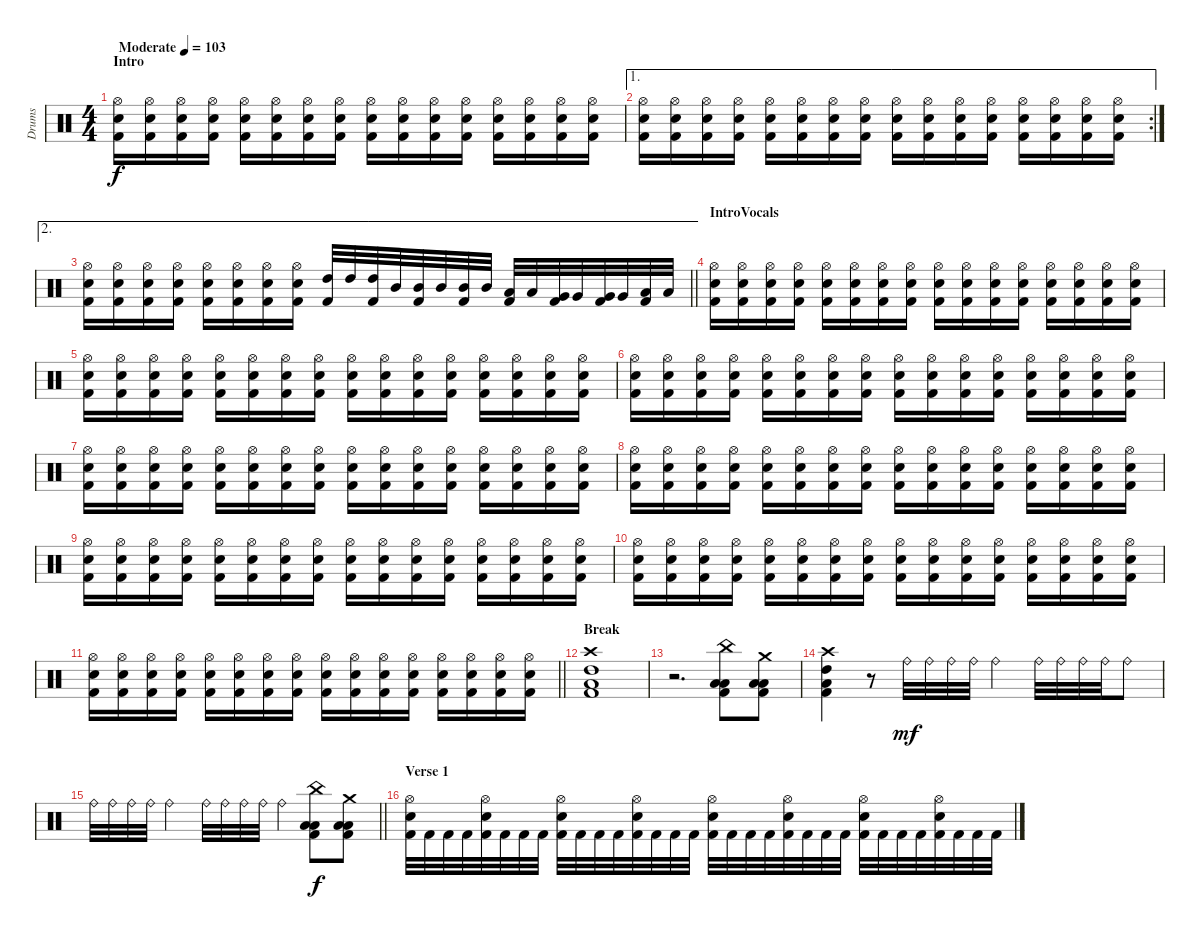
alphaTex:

\track ("Drums" "Drums") {instrument percussion}
\staff {score}
\articulation defaults
\ts (4 4)
\section ("" "Intro")
\tempo (103 "Moderate")
\clef neutral
\ks c
("Hi-Hat (open)" "Electric Snare (hit)" "Kick (hit) 2").16{dy f} ("Hi-Hat (open)" "Electric Snare (hit)" "Kick (hit) 2").16 ("Hi-Hat (open)" "Electric Snare (hit)" "Kick (hit) 2").16 ("Hi-Hat (open)" "Electric Snare (hit)" "Kick (hit) 2").16 ("Hi-Hat (open)" "Electric Snare (hit)" "Kick (hit) 2").16 ("Hi-Hat (open)" "Electric Snare (hit)" "Kick (hit) 2").16 ("Hi-Hat (open)" "Electric Snare (hit)" "Kick (hit) 2").16 ("Hi-Hat (open)" "Electric Snare (hit)" "Kick (hit) 2").16 ("Hi-Hat (open)" "Electric Snare (hit)" "Kick (hit) 2").16 ("Hi-Hat (open)" "Electric Snare (hit)" "Kick (hit) 2").16 ("Hi-Hat (open)" "Electric Snare (hit)" "Kick (hit) 2").16 ("Hi-Hat (open)" "Electric Snare (hit)" "Kick (hit) 2").16 ("Hi-Hat (open)" "Electric Snare (hit)" "Kick (hit) 2").16 ("Hi-Hat (open)" "Electric Snare (hit)" "Kick (hit) 2").16 ("Hi-Hat (open)" "Electric Snare (hit)" "Kick (hit) 2").16 ("Hi-Hat (open)" "Electric Snare (hit)" "Kick (hit) 2").16 |
\ae 1
\rc 2
("Hi-Hat (open)" "Electric Snare (hit)" "Kick (hit) 2").16 ("Hi-Hat (open)" "Electric Snare (hit)" "Kick (hit) 2").16 ("Hi-Hat (open)" "Electric Snare (hit)" "Kick (hit) 2").16 ("Hi-Hat (open)" "Electric Snare (hit)" "Kick (hit) 2").16 ("Hi-Hat (open)" "Electric Snare (hit)" "Kick (hit) 2").16 ("Hi-Hat (open)" "Electric Snare (hit)" "Kick (hit) 2").16 ("Hi-Hat (open)" "Electric Snare (hit)" "Kick (hit) 2").16 ("Hi-Hat (open)" "Electric Snare (hit)" "Kick (hit) 2").16 ("Hi-Hat (open)" "Electric Snare (hit)" "Kick (hit) 2").16 ("Hi-Hat (open)" "Electric Snare (hit)" "Kick (hit) 2").16 ("Hi-Hat (open)" "Electric Snare (hit)" "Kick (hit) 2").16 ("Hi-Hat (open)" "Electric Snare (hit)" "Kick (hit) 2").16 ("Hi-Hat (open)" "Electric Snare (hit)" "Kick (hit) 2").16 ("Hi-Hat (open)" "Electric Snare (hit)" "Kick (hit) 2").16 ("Hi-Hat (open)" "Electric Snare (hit)" "Kick (hit) 2").16 ("Hi-Hat (open)" "Electric Snare (hit)" "Kick (hit) 2").16 |
\ae 2
\barLineRight lightlight
("Hi-Hat (open)" "Electric Snare (hit)" "Kick (hit) 2").16 ("Hi-Hat (open)" "Electric Snare (hit)" "Kick (hit) 2").16 ("Hi-Hat (open)" "Electric Snare (hit)" "Kick (hit) 2").16 ("Hi-Hat (open)" "Electric Snare (hit)" "Kick (hit) 2").16 ("Hi-Hat (open)" "Electric Snare (hit)" "Kick (hit) 2").16 ("Hi-Hat (open)" "Electric Snare (hit)" "Kick (hit) 2").16 ("Hi-Hat (open)" "Electric Snare (hit)" "Kick (hit) 2").16 ("Hi-Hat (open)" "Electric Snare (hit)" "Kick (hit) 2").16 ("High Tom (hit)" "Kick (hit) 2").32 "High Tom (hit)".32 ("High Tom (hit)" "Kick (hit) 2").32 "Mid Tom (hit)".32 ("Mid Tom (hit)" "Kick (hit) 2").32 "Mid Tom (hit)".32 ("Mid Tom (hit)" "Kick (hit) 2").32 "Mid Tom (hit)".32 ("Low Tom (hit)" "Kick (hit) 2").32 "Low Tom (hit)".32 ("Very Low Tom (hit)" "Kick (hit) 2").32 "Very Low Tom (hit)".32 ("Very Low Tom (hit)" "Kick (hit) 2").32 "Very Low Tom (hit)".32 ("Low Floor Tom (hit)" "Kick (hit) 2").32 "Low Floor Tom (hit)".32 |
\section ("" "IntroVocals")
("Hi-Hat (open)" "Electric Snare (hit)" "Kick (hit) 2").16 ("Hi-Hat (open)" "Electric Snare (hit)" "Kick (hit) 2").16 ("Hi-Hat (open)" "Electric Snare (hit)" "Kick (hit) 2").16 ("Hi-Hat (open)" "Electric Snare (hit)" "Kick (hit) 2").16 ("Hi-Hat (open)" "Electric Snare (hit)" "Kick (hit) 2").16 ("Hi-Hat (open)" "Electric Snare (hit)" "Kick (hit) 2").16 ("Hi-Hat (open)" "Electric Snare (hit)" "Kick (hit) 2").16 ("Hi-Hat (open)" "Electric Snare (hit)" "Kick (hit) 2").16 ("Hi-Hat (open)" "Electric Snare (hit)" "Kick (hit) 2").16 ("Hi-Hat (open)" "Electric Snare (hit)" "Kick (hit) 2").16 ("Hi-Hat (open)" "Electric Snare (hit)" "Kick (hit) 2").16 ("Hi-Hat (open)" "Electric Snare (hit)" "Kick (hit) 2").16 ("Hi-Hat (open)" "Electric Snare (hit)" "Kick (hit) 2").16 ("Hi-Hat (open)" "Electric Snare (hit)" "Kick (hit) 2").16 ("Hi-Hat (open)" "Electric Snare (hit)" "Kick (hit) 2").16 ("Hi-Hat (open)" "Electric Snare (hit)" "Kick (hit) 2").16 |
("Hi-Hat (open)" "Electric Snare (hit)" "Kick (hit) 2").16 ("Hi-Hat (open)" "Electric Snare (hit)" "Kick (hit) 2").16 ("Hi-Hat (open)" "Electric Snare (hit)" "Kick (hit) 2").16 ("Hi-Hat (open)" "Electric Snare (hit)" "Kick (hit) 2").16 ("Hi-Hat (open)" "Electric Snare (hit)" "Kick (hit) 2").16 ("Hi-Hat (open)" "Electric Snare (hit)" "Kick (hit) 2").16 ("Hi-Hat (open)" "Electric Snare (hit)" "Kick (hit) 2").16 ("Hi-Hat (open)" "Electric Snare (hit)" "Kick (hit) 2").16 ("Hi-Hat (open)" "Electric Snare (hit)" "Kick (hit) 2").16 ("Hi-Hat (open)" "Electric Snare (hit)" "Kick (hit) 2").16 ("Hi-Hat (open)" "Electric Snare (hit)" "Kick (hit) 2").16 ("Hi-Hat (open)" "Electric Snare (hit)" "Kick (hit) 2").16 ("Hi-Hat (open)" "Electric Snare (hit)" "Kick (hit) 2").16 ("Hi-Hat (open)" "Electric Snare (hit)" "Kick (hit) 2").16 ("Hi-Hat (open)" "Electric Snare (hit)" "Kick (hit) 2").16 ("Hi-Hat (open)" "Electric Snare (hit)" "Kick (hit) 2").16 |
("Hi-Hat (open)" "Electric Snare (hit)" "Kick (hit) 2").16 ("Hi-Hat (open)" "Electric Snare (hit)" "Kick (hit) 2").16 ("Hi-Hat (open)" "Electric Snare (hit)" "Kick (hit) 2").16 ("Hi-Hat (open)" "Electric Snare (hit)" "Kick (hit) 2").16 ("Hi-Hat (open)" "Electric Snare (hit)" "Kick (hit) 2").16 ("Hi-Hat (open)" "Electric Snare (hit)" "Kick (hit) 2").16 ("Hi-Hat (open)" "Electric Snare (hit)" "Kick (hit) 2").16 ("Hi-Hat (open)" "Electric Snare (hit)" "Kick (hit) 2").16 ("Hi-Hat (open)" "Electric Snare (hit)" "Kick (hit) 2").16 ("Hi-Hat (open)" "Electric Snare (hit)" "Kick (hit) 2").16 ("Hi-Hat (open)" "Electric Snare (hit)" "Kick (hit) 2").16 ("Hi-Hat (open)" "Electric Snare (hit)" "Kick (hit) 2").16 ("Hi-Hat (open)" "Electric Snare (hit)" "Kick (hit) 2").16 ("Hi-Hat (open)" "Electric Snare (hit)" "Kick (hit) 2").16 ("Hi-Hat (open)" "Electric Snare (hit)" "Kick (hit) 2").16 ("Hi-Hat (open)" "Electric Snare (hit)" "Kick (hit) 2").16 |
("Hi-Hat (open)" "Electric Snare (hit)" "Kick (hit) 2").16 ("Hi-Hat (open)" "Electric Snare (hit)" "Kick (hit) 2").16 ("Hi-Hat (open)" "Electric Snare (hit)" "Kick (hit) 2").16 ("Hi-Hat (open)" "Electric Snare (hit)" "Kick (hit) 2").16 ("Hi-Hat (open)" "Electric Snare (hit)" "Kick (hit) 2").16 ("Hi-Hat (open)" "Electric Snare (hit)" "Kick (hit) 2").16 ("Hi-Hat (open)" "Electric Snare (hit)" "Kick (hit) 2").16 ("Hi-Hat (open)" "Electric Snare (hit)" "Kick (hit) 2").16 ("Hi-Hat (open)" "Electric Snare (hit)" "Kick (hit) 2").16 ("Hi-Hat (open)" "Electric Snare (hit)" "Kick (hit) 2").16 ("Hi-Hat (open)" "Electric Snare (hit)" "Kick (hit) 2").16 ("Hi-Hat (open)" "Electric Snare (hit)" "Kick (hit) 2").16 ("Hi-Hat (open)" "Electric Snare (hit)" "Kick (hit) 2").16 ("Hi-Hat (open)" "Electric Snare (hit)" "Kick (hit) 2").16 ("Hi-Hat (open)" "Electric Snare (hit)" "Kick (hit) 2").16 ("Hi-Hat (open)" "Electric Snare (hit)" "Kick (hit) 2").16 |
("Hi-Hat (open)" "Electric Snare (hit)" "Kick (hit) 2").16 ("Hi-Hat (open)" "Electric Snare (hit)" "Kick (hit) 2").16 ("Hi-Hat (open)" "Electric Snare (hit)" "Kick (hit) 2").16 ("Hi-Hat (open)" "Electric Snare (hit)" "Kick (hit) 2").16 ("Hi-Hat (open)" "Electric Snare (hit)" "Kick (hit) 2").16 ("Hi-Hat (open)" "Electric Snare (hit)" "Kick (hit) 2").16 ("Hi-Hat (open)" "Electric Snare (hit)" "Kick (hit) 2").16 ("Hi-Hat (open)" "Electric Snare (hit)" "Kick (hit) 2").16 ("Hi-Hat (open)" "Electric Snare (hit)" "Kick (hit) 2").16 ("Hi-Hat (open)" "Electric Snare (hit)" "Kick (hit) 2").16 ("Hi-Hat (open)" "Electric Snare (hit)" "Kick (hit) 2").16 ("Hi-Hat (open)" "Electric Snare (hit)" "Kick (hit) 2").16 ("Hi-Hat (open)" "Electric Snare (hit)" "Kick (hit) 2").16 ("Hi-Hat (open)" "Electric Snare (hit)" "Kick (hit) 2").16 ("Hi-Hat (open)" "Electric Snare (hit)" "Kick (hit) 2").16 ("Hi-Hat (open)" "Electric Snare (hit)" "Kick (hit) 2").16 |
("Hi-Hat (open)" "Electric Snare (hit)" "Kick (hit) 2").16 ("Hi-Hat (open)" "Electric Snare (hit)" "Kick (hit) 2").16 ("Hi-Hat (open)" "Electric Snare (hit)" "Kick (hit) 2").16 ("Hi-Hat (open)" "Electric Snare (hit)" "Kick (hit) 2").16 ("Hi-Hat (open)" "Electric Snare (hit)" "Kick (hit) 2").16 ("Hi-Hat (open)" "Electric Snare (hit)" "Kick (hit) 2").16 ("Hi-Hat (open)" "Electric Snare (hit)" "Kick (hit) 2").16 ("Hi-Hat (open)" "Electric Snare (hit)" "Kick (hit) 2").16 ("Hi-Hat (open)" "Electric Snare (hit)" "Kick (hit) 2").16 ("Hi-Hat (open)" "Electric Snare (hit)" "Kick (hit) 2").16 ("Hi-Hat (open)" "Electric Snare (hit)" "Kick (hit) 2").16 ("Hi-Hat (open)" "Electric Snare (hit)" "Kick (hit) 2").16 ("Hi-Hat (open)" "Electric Snare (hit)" "Kick (hit) 2").16 ("Hi-Hat (open)" "Electric Snare (hit)" "Kick (hit) 2").16 ("Hi-Hat (open)" "Electric Snare (hit)" "Kick (hit) 2").16 ("Hi-Hat (open)" "Electric Snare (hit)" "Kick (hit) 2").16 |
("Hi-Hat (open)" "Electric Snare (hit)" "Kick (hit) 2").16 ("Hi-Hat (open)" "Electric Snare (hit)" "Kick (hit) 2").16 ("Hi-Hat (open)" "Electric Snare (hit)" "Kick (hit) 2").16 ("Hi-Hat (open)" "Electric Snare (hit)" "Kick (hit) 2").16 ("Hi-Hat (open)" "Electric Snare (hit)" "Kick (hit) 2").16 ("Hi-Hat (open)" "Electric Snare (hit)" "Kick (hit) 2").16 ("Hi-Hat (open)" "Electric Snare (hit)" "Kick (hit) 2").16 ("Hi-Hat (open)" "Electric Snare (hit)" "Kick (hit) 2").16 ("Hi-Hat (open)" "Electric Snare (hit)" "Kick (hit) 2").16 ("Hi-Hat (open)" "Electric Snare (hit)" "Kick (hit) 2").16 ("Hi-Hat (open)" "Electric Snare (hit)" "Kick (hit) 2").16 ("Hi-Hat (open)" "Electric Snare (hit)" "Kick (hit) 2").16 ("Hi-Hat (open)" "Electric Snare (hit)" "Kick (hit) 2").16 ("Hi-Hat (open)" "Electric Snare (hit)" "Kick (hit) 2").16 ("Hi-Hat (open)" "Electric Snare (hit)" "Kick (hit) 2").16 ("Hi-Hat (open)" "Electric Snare (hit)" "Kick (hit) 2").16 |
\barLineRight lightlight
("Hi-Hat (open)" "Electric Snare (hit)" "Kick (hit) 2").16 ("Hi-Hat (open)" "Electric Snare (hit)" "Kick (hit) 2").16 ("Hi-Hat (open)" "Electric Snare (hit)" "Kick (hit) 2").16 ("Hi-Hat (open)" "Electric Snare (hit)" "Kick (hit) 2").16 ("Hi-Hat (open)" "Electric Snare (hit)" "Kick (hit) 2").16 ("Hi-Hat (open)" "Electric Snare (hit)" "Kick (hit) 2").16 ("Hi-Hat (open)" "Electric Snare (hit)" "Kick (hit) 2").16 ("Hi-Hat (open)" "Electric Snare (hit)" "Kick (hit) 2").16 ("Hi-Hat (open)" "Electric Snare (hit)" "Kick (hit) 2").16 ("Hi-Hat (open)" "Electric Snare (hit)" "Kick (hit) 2").16 ("Hi-Hat (open)" "Electric Snare (hit)" "Kick (hit) 2").16 ("Hi-Hat (open)" "Electric Snare (hit)" "Kick (hit) 2").16 ("Hi-Hat (open)" "Electric Snare (hit)" "Kick (hit) 2").16 ("Hi-Hat (open)" "Electric Snare (hit)" "Kick (hit) 2").16 ("Hi-Hat (open)" "Electric Snare (hit)" "Kick (hit) 2").16 ("Hi-Hat (open)" "Electric Snare (hit)" "Kick (hit) 2").16 |
\section ("" "Break")
("Crash high (hit)" "High Tom (hit)" "Low Floor Tom (hit)" "Kick (hit) 2").1 |
r.2{d} ("China (hit)" "Low Tom (hit)" "Low Floor Tom (hit)" "Kick (hit) 2").8 ("Crash medium (hit)" "Low Tom (hit)" "Low Floor Tom (hit)" "Kick (hit) 2").8 |
("Crash high (hit)" "High Tom (hit)" "Low Floor Tom (hit)" "Kick (hit) 2").4 r.8 "Ride (bell)".32{dy mf} "Ride (bell)".32 "Ride (bell)".32 "Ride (bell)".32 "Ride (bell)".4 "Ride (bell)".32 "Ride (bell)".32 "Ride (bell)".32 "Ride (bell)".32 "Ride (bell)".8 |
\barLineRight lightlight "Ride (bell)".32 "Ride (bell)".32 "Ride (bell)".32 "Ride (bell)".32 "Ride (bell)".4 "Ride (bell)".32 "Ride (bell)".32 "Ride (bell)".32 "Ride (bell)".32 "Ride (bell)".4
("China (hit)" "Low Tom (hit)" "Low Floor Tom (hit)" "Kick (hit) 2").8{dy f} ("Crash medium (hit)" "Low Tom (hit)" "Low Floor Tom (hit)" "Kick (hit) 2").8 |
\section ("" "Verse 1")
("Hi-Hat (open)" "Electric Snare (hit)" "Kick (hit) 2").32 "Kick (hit) 2".32 "Kick (hit) 2".32 "Kick (hit) 2".32 ("Hi-Hat (open)" "Electric Snare (hit)" "Kick (hit) 2").32 "Kick (hit) 2".32 "Kick (hit) 2".32 "Kick (hit) 2".32 ("Hi-Hat (open)" "Electric Snare (hit)" "Kick (hit) 2").32 "Kick (hit) 2".32 "Kick (hit) 2".32 "Kick (hit) 2".32 ("Hi-Hat (open)" "Electric Snare (hit)" "Kick (hit) 2").32 "Kick (hit) 2".32 "Kick (hit) 2".32 "Kick (hit) 2".32 ("Hi-Hat (open)" "Electric Snare (hit)" "Kick (hit) 2").32 "Kick (hit) 2".32 "Kick (hit) 2".32 "Kick (hit) 2".32 ("Hi-Hat (open)" "Electric Snare (hit)" "Kick (hit) 2").32 "Kick (hit) 2".32 "Kick (hit) 2".32 "Kick (hit) 2".32 ("Hi-Hat (open)" "Electric Snare (hit)" "Kick (hit) 2").32 "Kick (hit) 2".32 "Kick (hit) 2".32 "Kick (hit) 2".32 ("Hi-Hat (open)" "Electric Snare (hit)" "Kick (hit) 2").32 "Kick (hit) 2".32 "Kick (hit) 2".32 "Kick (hit) 2".32
